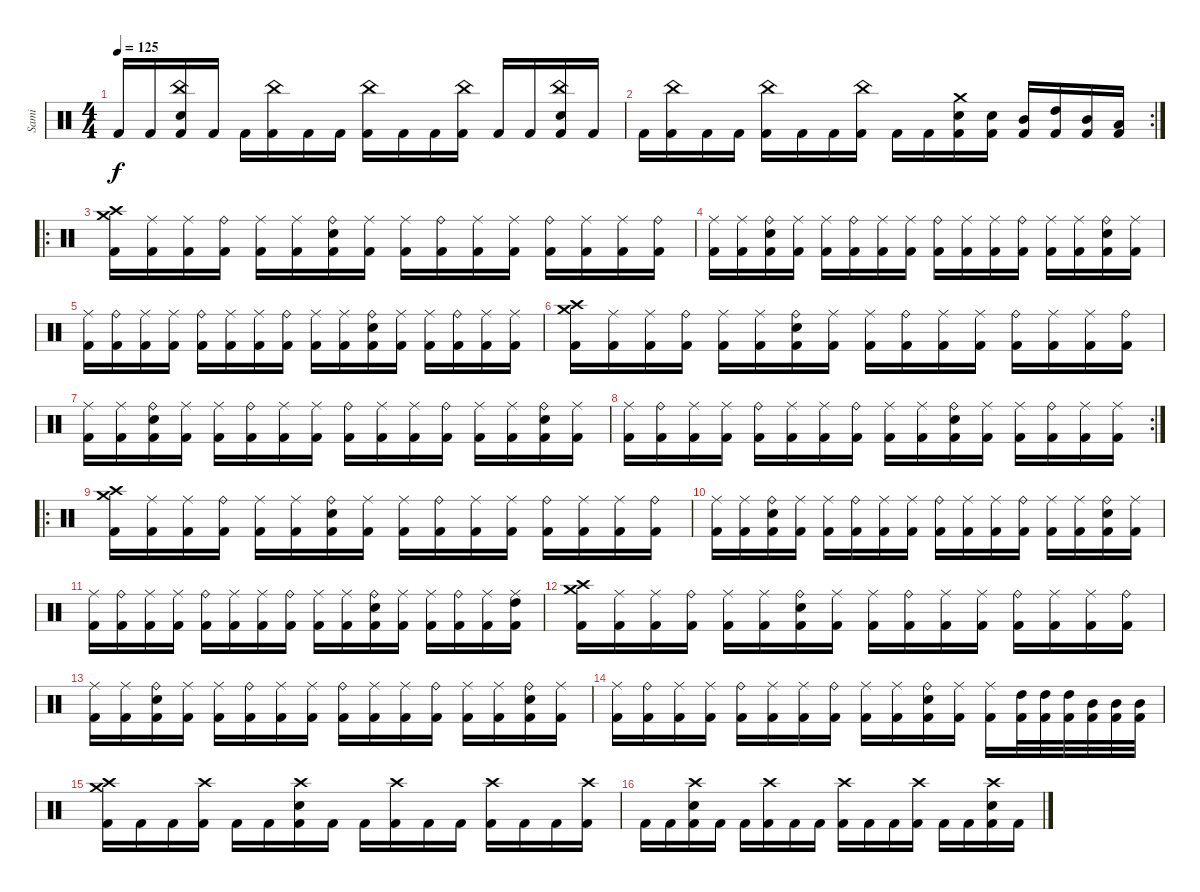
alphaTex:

\track ("Sami" "Sami") {instrument percussion}
\staff {score}
\articulation defaults
\ts (4 4)
\tempo 125
\clef neutral
\ks c "Kick (hit) 2".16{dy f} "Kick (hit) 2".16
("China (hit)" "Snare (hit) 2" "Kick (hit) 2").16 "Kick (hit) 2".16 "Kick (hit) 2".16 ("China (hit)" "Kick (hit) 2").16 "Kick (hit) 2".16 "Kick (hit) 2".16 ("China (hit)" "Kick (hit) 2").16 "Kick (hit) 2".16 "Kick (hit) 2".16 ("China (hit)" "Kick (hit) 2").16 "Kick (hit) 2".16 "Kick (hit) 2".16 ("China (hit)" "Snare (hit) 2" "Kick (hit) 2").16 "Kick (hit) 2".16 |
\rc 2 "Kick (hit) 2".16
("China (hit)" "Kick (hit) 2").16 "Kick (hit) 2".16 "Kick (hit) 2".16 ("China (hit)" "Kick (hit) 2").16 "Kick (hit) 2".16 "Kick (hit) 2".16 ("China (hit)" "Kick (hit) 2").16 "Kick (hit) 2".16 "Kick (hit) 2".16 ("Crash medium (hit)" "Snare (hit) 2" "Kick (hit) 2").16 ("Snare (hit) 2" "Kick (hit) 2").16 ("Mid Tom (hit)" "Kick (hit) 2").16 ("High Tom (hit)" "Kick (hit) 2").16 ("Mid Tom (hit)" "Kick (hit) 2").16 ("Low Tom (hit)" "Kick (hit) 2").16 |
\ro
("Crash medium (hit)" "Crash high (hit)" "Kick (hit) 2").16 ("Ride (middle)" "Kick (hit) 2").16 ("Ride (middle)" "Kick (hit) 2").16 ("Ride (bell)" "Kick (hit) 2").16 ("Ride (middle)" "Kick (hit) 2").16 ("Ride (middle)" "Kick (hit) 2").16 ("Ride (bell)" "Snare (hit) 2" "Kick (hit) 2").16 ("Ride (middle)" "Kick (hit) 2").16 ("Ride (middle)" "Kick (hit) 2").16 ("Ride (bell)" "Kick (hit) 2").16 ("Ride (middle)" "Kick (hit) 2").16 ("Ride (middle)" "Kick (hit) 2").16 ("Ride (bell)" "Kick (hit) 2").16 ("Ride (middle)" "Kick (hit) 2").16 ("Ride (middle)" "Kick (hit) 2").16 ("Ride (bell)" "Kick (hit) 2").16 |
("Ride (middle)" "Kick (hit) 2").16 ("Ride (middle)" "Kick (hit) 2").16 ("Ride (bell)" "Snare (hit) 2" "Kick (hit) 2").16 ("Ride (middle)" "Kick (hit) 2").16 ("Ride (middle)" "Kick (hit) 2").16 ("Ride (bell)" "Kick (hit) 2").16 ("Ride (middle)" "Kick (hit) 2").16 ("Ride (middle)" "Kick (hit) 2").16 ("Ride (bell)" "Kick (hit) 2").16 ("Ride (middle)" "Kick (hit) 2").16 ("Ride (middle)" "Kick (hit) 2").16 ("Ride (bell)" "Kick (hit) 2").16 ("Ride (middle)" "Kick (hit) 2").16 ("Ride (middle)" "Kick (hit) 2").16 ("Ride (bell)" "Snare (hit) 2" "Kick (hit) 2").16 ("Ride (middle)" "Kick (hit) 2").16 |
("Ride (middle)" "Kick (hit) 2").16 ("Ride (bell)" "Kick (hit) 2").16 ("Ride (middle)" "Kick (hit) 2").16 ("Ride (middle)" "Kick (hit) 2").16 ("Ride (bell)" "Kick (hit) 2").16 ("Ride (middle)" "Kick (hit) 2").16 ("Ride (middle)" "Kick (hit) 2").16 ("Ride (bell)" "Kick (hit) 2").16 ("Ride (middle)" "Kick (hit) 2").16 ("Ride (middle)" "Kick (hit) 2").16 ("Ride (bell)" "Snare (hit) 2" "Kick (hit) 2").16 ("Ride (middle)" "Kick (hit) 2").16 ("Ride (middle)" "Kick (hit) 2").16 ("Ride (bell)" "Kick (hit) 2").16 ("Ride (middle)" "Kick (hit) 2").16 ("Ride (middle)" "Kick (hit) 2").16 |
("Crash medium (hit)" "Crash high (hit)" "Kick (hit) 2").16 ("Ride (middle)" "Kick (hit) 2").16 ("Ride (middle)" "Kick (hit) 2").16 ("Ride (bell)" "Kick (hit) 2").16 ("Ride (middle)" "Kick (hit) 2").16 ("Ride (middle)" "Kick (hit) 2").16 ("Ride (bell)" "Snare (hit) 2" "Kick (hit) 2").16 ("Ride (middle)" "Kick (hit) 2").16 ("Ride (middle)" "Kick (hit) 2").16 ("Ride (bell)" "Kick (hit) 2").16 ("Ride (middle)" "Kick (hit) 2").16 ("Ride (middle)" "Kick (hit) 2").16 ("Ride (bell)" "Kick (hit) 2").16 ("Ride (middle)" "Kick (hit) 2").16 ("Ride (middle)" "Kick (hit) 2").16 ("Ride (bell)" "Kick (hit) 2").16 |
("Ride (middle)" "Kick (hit) 2").16 ("Ride (middle)" "Kick (hit) 2").16 ("Ride (bell)" "Snare (hit) 2" "Kick (hit) 2").16 ("Ride (middle)" "Kick (hit) 2").16 ("Ride (middle)" "Kick (hit) 2").16 ("Ride (bell)" "Kick (hit) 2").16 ("Ride (middle)" "Kick (hit) 2").16 ("Ride (middle)" "Kick (hit) 2").16 ("Ride (bell)" "Kick (hit) 2").16 ("Ride (middle)" "Kick (hit) 2").16 ("Ride (middle)" "Kick (hit) 2").16 ("Ride (bell)" "Kick (hit) 2").16 ("Ride (middle)" "Kick (hit) 2").16 ("Ride (middle)" "Kick (hit) 2").16 ("Ride (bell)" "Snare (hit) 2" "Kick (hit) 2").16 ("Ride (middle)" "Kick (hit) 2").16 |
\rc 2
("Ride (middle)" "Kick (hit) 2").16 ("Ride (bell)" "Kick (hit) 2").16 ("Ride (middle)" "Kick (hit) 2").16 ("Ride (middle)" "Kick (hit) 2").16 ("Ride (bell)" "Kick (hit) 2").16 ("Ride (middle)" "Kick (hit) 2").16 ("Ride (middle)" "Kick (hit) 2").16 ("Ride (bell)" "Kick (hit) 2").16 ("Ride (middle)" "Kick (hit) 2").16 ("Ride (middle)" "Kick (hit) 2").16 ("Ride (bell)" "Snare (hit) 2" "Kick (hit) 2").16 ("Ride (middle)" "Kick (hit) 2").16 ("Ride (middle)" "Kick (hit) 2").16 ("Ride (bell)" "Kick (hit) 2").16 ("Ride (middle)" "Kick (hit) 2").16 ("Ride (middle)" "Kick (hit) 2").16 |
\ro
("Crash medium (hit)" "Crash high (hit)" "Kick (hit) 2").16 ("Ride (middle)" "Kick (hit) 2").16 ("Ride (middle)" "Kick (hit) 2").16 ("Ride (bell)" "Kick (hit) 2").16 ("Ride (middle)" "Kick (hit) 2").16 ("Ride (middle)" "Kick (hit) 2").16 ("Ride (bell)" "Snare (hit) 2" "Kick (hit) 2").16 ("Ride (middle)" "Kick (hit) 2").16 ("Ride (middle)" "Kick (hit) 2").16 ("Ride (bell)" "Kick (hit) 2").16 ("Ride (middle)" "Kick (hit) 2").16 ("Ride (middle)" "Kick (hit) 2").16 ("Ride (bell)" "Kick (hit) 2").16 ("Ride (middle)" "Kick (hit) 2").16 ("Ride (middle)" "Kick (hit) 2").16 ("Ride (bell)" "Kick (hit) 2").16 |
("Ride (middle)" "Kick (hit) 2").16 ("Ride (middle)" "Kick (hit) 2").16 ("Ride (bell)" "Snare (hit) 2" "Kick (hit) 2").16 ("Ride (middle)" "Kick (hit) 2").16 ("Ride (middle)" "Kick (hit) 2").16 ("Ride (bell)" "Kick (hit) 2").16 ("Ride (middle)" "Kick (hit) 2").16 ("Ride (middle)" "Kick (hit) 2").16 ("Ride (bell)" "Kick (hit) 2").16 ("Ride (middle)" "Kick (hit) 2").16 ("Ride (middle)" "Kick (hit) 2").16 ("Ride (bell)" "Kick (hit) 2").16 ("Ride (middle)" "Kick (hit) 2").16 ("Ride (middle)" "Kick (hit) 2").16 ("Ride (bell)" "Snare (hit) 2" "Kick (hit) 2").16 ("Ride (middle)" "Kick (hit) 2").16 |
("Ride (middle)" "Kick (hit) 2").16 ("Ride (bell)" "Kick (hit) 2").16 ("Ride (middle)" "Kick (hit) 2").16 ("Ride (middle)" "Kick (hit) 2").16 ("Ride (bell)" "Kick (hit) 2").16 ("Ride (middle)" "Kick (hit) 2").16 ("Ride (middle)" "Kick (hit) 2").16 ("Ride (bell)" "Kick (hit) 2").16 ("Ride (middle)" "Kick (hit) 2").16 ("Ride (middle)" "Kick (hit) 2").16 ("Ride (bell)" "Snare (hit) 2" "Kick (hit) 2").16 ("Ride (middle)" "Kick (hit) 2").16 ("Ride (middle)" "Kick (hit) 2").16 ("Ride (bell)" "Kick (hit) 2").16 ("Ride (middle)" "Kick (hit) 2").16 ("Ride (middle)" "High Tom (hit)" "Kick (hit) 2").16 |
("Crash medium (hit)" "Crash high (hit)" "Kick (hit) 2").16 ("Ride (middle)" "Kick (hit) 2").16 ("Ride (middle)" "Kick (hit) 2").16 ("Ride (bell)" "Kick (hit) 2").16 ("Ride (middle)" "Kick (hit) 2").16 ("Ride (middle)" "Kick (hit) 2").16 ("Ride (bell)" "Snare (hit) 2" "Kick (hit) 2").16 ("Ride (middle)" "Kick (hit) 2").16 ("Ride (middle)" "Kick (hit) 2").16 ("Ride (bell)" "Kick (hit) 2").16 ("Ride (middle)" "Kick (hit) 2").16 ("Ride (middle)" "Kick (hit) 2").16 ("Ride (bell)" "Kick (hit) 2").16 ("Ride (middle)" "Kick (hit) 2").16 ("Ride (middle)" "Kick (hit) 2").16 ("Ride (bell)" "Kick (hit) 2").16 |
("Ride (middle)" "Kick (hit) 2").16 ("Ride (middle)" "Kick (hit) 2").16 ("Ride (bell)" "Snare (hit) 2" "Kick (hit) 2").16 ("Ride (middle)" "Kick (hit) 2").16 ("Ride (middle)" "Kick (hit) 2").16 ("Ride (bell)" "Kick (hit) 2").16 ("Ride (middle)" "Kick (hit) 2").16 ("Ride (middle)" "Kick (hit) 2").16 ("Ride (bell)" "Kick (hit) 2").16 ("Ride (middle)" "Kick (hit) 2").16 ("Ride (middle)" "Kick (hit) 2").16 ("Ride (bell)" "Kick (hit) 2").16 ("Ride (middle)" "Kick (hit) 2").16 ("Ride (middle)" "Kick (hit) 2").16 ("Ride (bell)" "Snare (hit) 2" "Kick (hit) 2").16 ("Ride (middle)" "Kick (hit) 2").16 |
("Ride (middle)" "Kick (hit) 2").16 ("Ride (bell)" "Kick (hit) 2").16 ("Ride (middle)" "Kick (hit) 2").16 ("Ride (middle)" "Kick (hit) 2").16 ("Ride (bell)" "Kick (hit) 2").16 ("Ride (middle)" "Kick (hit) 2").16 ("Ride (middle)" "Kick (hit) 2").16 ("Ride (bell)" "Kick (hit) 2").16 ("Ride (middle)" "Kick (hit) 2").16 ("Ride (middle)" "Kick (hit) 2").16 ("Ride (bell)" "Snare (hit) 2" "Kick (hit) 2").16 ("Ride (middle)" "Kick (hit) 2").16 ("Ride (middle)" "Kick (hit) 2").16 ("High Tom (hit)" "Kick (hit) 2").32 ("High Tom (hit)" "Kick (hit) 2").32 ("High Tom (hit)" "Kick (hit) 2").32 ("Mid Tom (hit)" "Kick (hit) 2").32 ("Mid Tom (hit)" "Kick (hit) 2").32 ("Mid Tom (hit)" "Kick (hit) 2").32 |
("Crash high (hit)" "Crash medium (hit)" "Kick (hit) 2").16 "Kick (hit) 2".16 "Kick (hit) 2".16 ("Crash high (hit)" "Kick (hit) 2").16 "Kick (hit) 2".16 "Kick (hit) 2".16 ("Crash high (hit)" "Snare (hit) 2" "Kick (hit) 2").16 "Kick (hit) 2".16 "Kick (hit) 2".16 ("Crash high (hit)" "Kick (hit) 2").16 "Kick (hit) 2".16 "Kick (hit) 2".16 ("Crash high (hit)" "Kick (hit) 2").16 "Kick (hit) 2".16 "Kick (hit) 2".16 ("Crash high (hit)" "Kick (hit) 2").16 |
"Kick (hit) 2".16 "Kick (hit) 2".16 ("Crash high (hit)" "Snare (hit) 2" "Kick (hit) 2").16 "Kick (hit) 2".16 "Kick (hit) 2".16 ("Crash high (hit)" "Kick (hit) 2").16 "Kick (hit) 2".16 "Kick (hit) 2".16 ("Crash high (hit)" "Kick (hit) 2").16 "Kick (hit) 2".16 "Kick (hit) 2".16 ("Crash high (hit)" "Kick (hit) 2").16 "Kick (hit) 2".16 "Kick (hit) 2".16 ("Crash high (hit)" "Snare (hit) 2" "Kick (hit) 2").16 "Kick (hit) 2".16
